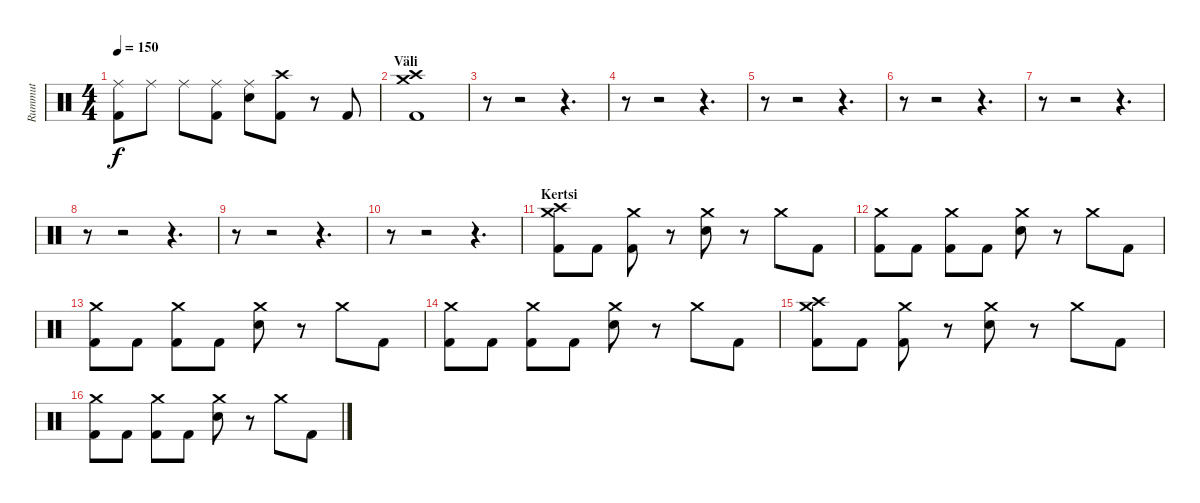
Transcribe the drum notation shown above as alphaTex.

\track ("Rummut" "Rummut") {instrument percussion}
\staff {score}
\articulation defaults
\ts (4 4)
\tempo 150
\clef neutral
\ks c
("Ride (middle)" "Kick (hit) 2").8{dy f} "Ride (middle)".8 "Ride (middle)".8 ("Ride (middle)" "Kick (hit) 2").8 ("Ride (middle)" "Snare (hit) 2").8 ("Crash high (hit)" "Kick (hit) 2").8 r.8 "Kick (hit) 2".8 |
\section ("" "Väli")
("Crash high (hit)" "Crash medium (hit)" "Kick (hit) 2").1 |
r.8 r.2 r.4{d} |
r.8 r.2 r.4{d} |
r.8 r.2 r.4{d} |
r.8 r.2 r.4{d} |
r.8 r.2 r.4{d} |
r.8 r.2 r.4{d} |
r.8 r.2 r.4{d} |
r.8 r.2 r.4{d} |
\section ("" "Kertsi")
("Crash high (hit)" "Crash medium (hit)" "Kick (hit) 2").8 "Kick (hit) 2".8 ("Crash medium (hit)" "Kick (hit) 2").8 r.8 ("Crash medium (hit)" "Snare (hit) 2").8 r.8 "Crash medium (hit)".8 "Kick (hit) 2".8 |
("Crash medium (hit)" "Kick (hit) 2").8 "Kick (hit) 2".8 ("Crash medium (hit)" "Kick (hit) 2").8 "Kick (hit) 2".8 ("Crash medium (hit)" "Snare (hit) 2").8 r.8 "Crash medium (hit)".8 "Kick (hit) 2".8 |
("Crash medium (hit)" "Kick (hit) 2").8 "Kick (hit) 2".8 ("Crash medium (hit)" "Kick (hit) 2").8 "Kick (hit) 2".8 ("Crash medium (hit)" "Snare (hit) 2").8 r.8 "Crash medium (hit)".8 "Kick (hit) 2".8 |
("Crash medium (hit)" "Kick (hit) 2").8 "Kick (hit) 2".8 ("Crash medium (hit)" "Kick (hit) 2").8 "Kick (hit) 2".8 ("Crash medium (hit)" "Snare (hit) 2").8 r.8 "Crash medium (hit)".8 "Kick (hit) 2".8 |
("Crash high (hit)" "Crash medium (hit)" "Kick (hit) 2").8 "Kick (hit) 2".8 ("Crash medium (hit)" "Kick (hit) 2").8 r.8 ("Crash medium (hit)" "Snare (hit) 2").8 r.8 "Crash medium (hit)".8 "Kick (hit) 2".8 |
("Crash medium (hit)" "Kick (hit) 2").8 "Kick (hit) 2".8 ("Crash medium (hit)" "Kick (hit) 2").8 "Kick (hit) 2".8 ("Crash medium (hit)" "Snare (hit) 2").8 r.8 "Crash medium (hit)".8 "Kick (hit) 2".8
